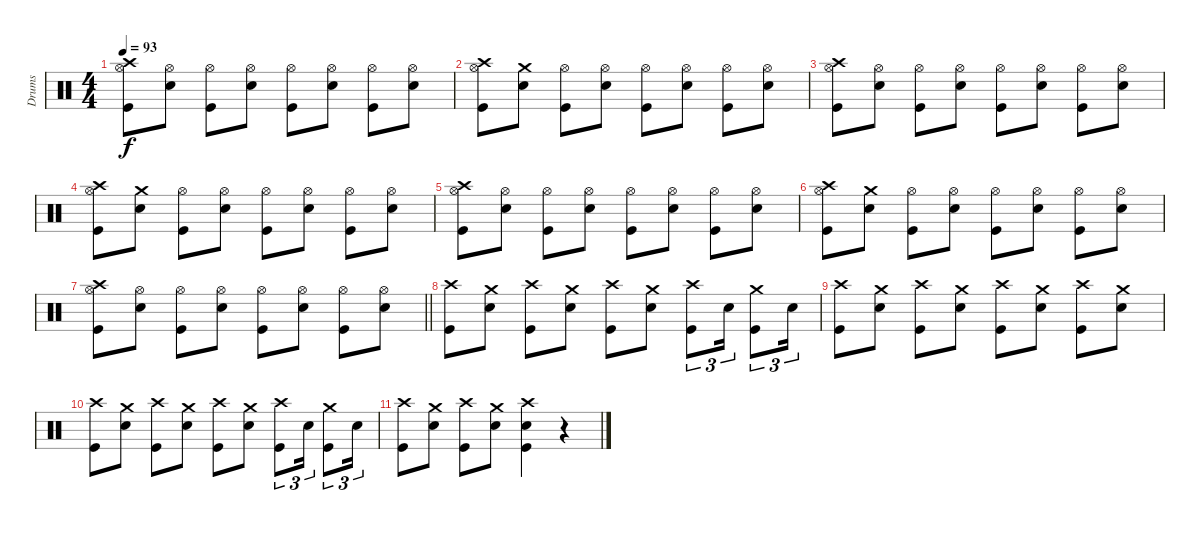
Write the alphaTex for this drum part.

\track ("Drums" "Drums") {instrument percussion}
\staff {score}
\articulation defaults
\ts (4 4)
\tempo 93
\clef neutral
\ks c
("Crash high (hit)" "Hi-Hat (open)" "Kick (hit)").8{dy f} ("Hi-Hat (open)" "Snare (hit) 2").8 ("Hi-Hat (open)" "Kick (hit)").8 ("Hi-Hat (open)" "Snare (hit) 2").8 ("Hi-Hat (open)" "Kick (hit)").8 ("Hi-Hat (open)" "Snare (hit) 2").8 ("Hi-Hat (open)" "Kick (hit)").8 ("Hi-Hat (open)" "Snare (hit) 2").8 |
("Crash high (hit)" "Hi-Hat (open)" "Kick (hit)").8 ("Crash medium (hit)" "Snare (hit) 2").8 ("Hi-Hat (open)" "Kick (hit)").8 ("Hi-Hat (open)" "Snare (hit) 2").8 ("Hi-Hat (open)" "Kick (hit)").8 ("Hi-Hat (open)" "Snare (hit) 2").8 ("Hi-Hat (open)" "Kick (hit)").8 ("Hi-Hat (open)" "Snare (hit) 2").8 |
("Crash high (hit)" "Hi-Hat (open)" "Kick (hit)").8 ("Hi-Hat (open)" "Snare (hit) 2").8 ("Hi-Hat (open)" "Kick (hit)").8 ("Hi-Hat (open)" "Snare (hit) 2").8 ("Hi-Hat (open)" "Kick (hit)").8 ("Hi-Hat (open)" "Snare (hit) 2").8 ("Hi-Hat (open)" "Kick (hit)").8 ("Hi-Hat (open)" "Snare (hit) 2").8 |
("Crash high (hit)" "Hi-Hat (open)" "Kick (hit)").8 ("Crash medium (hit)" "Snare (hit) 2").8 ("Hi-Hat (open)" "Kick (hit)").8 ("Hi-Hat (open)" "Snare (hit) 2").8 ("Hi-Hat (open)" "Kick (hit)").8 ("Hi-Hat (open)" "Snare (hit) 2").8 ("Hi-Hat (open)" "Kick (hit)").8 ("Hi-Hat (open)" "Snare (hit) 2").8 |
("Crash high (hit)" "Hi-Hat (open)" "Kick (hit)").8 ("Hi-Hat (open)" "Snare (hit) 2").8 ("Hi-Hat (open)" "Kick (hit)").8 ("Hi-Hat (open)" "Snare (hit) 2").8 ("Hi-Hat (open)" "Kick (hit)").8 ("Hi-Hat (open)" "Snare (hit) 2").8 ("Hi-Hat (open)" "Kick (hit)").8 ("Hi-Hat (open)" "Snare (hit) 2").8 |
("Crash high (hit)" "Hi-Hat (open)" "Kick (hit)").8 ("Crash medium (hit)" "Snare (hit) 2").8 ("Hi-Hat (open)" "Kick (hit)").8 ("Hi-Hat (open)" "Snare (hit) 2").8 ("Hi-Hat (open)" "Kick (hit)").8 ("Hi-Hat (open)" "Snare (hit) 2").8 ("Hi-Hat (open)" "Kick (hit)").8 ("Hi-Hat (open)" "Snare (hit) 2").8 |
\barLineRight lightlight
("Crash high (hit)" "Hi-Hat (open)" "Kick (hit)").8 ("Hi-Hat (open)" "Snare (hit) 2").8 ("Hi-Hat (open)" "Kick (hit)").8 ("Hi-Hat (open)" "Snare (hit) 2").8 ("Hi-Hat (open)" "Kick (hit)").8 ("Hi-Hat (open)" "Snare (hit) 2").8 ("Hi-Hat (open)" "Kick (hit)").8 ("Hi-Hat (open)" "Snare (hit) 2").8 |
("Crash high (hit)" "Kick (hit)").8 ("Crash medium (hit)" "Snare (hit) 2").8 ("Crash high (hit)" "Kick (hit)").8 ("Crash medium (hit)" "Snare (hit) 2").8 ("Crash high (hit)" "Kick (hit)").8 ("Crash medium (hit)" "Snare (hit) 2").8 ("Crash high (hit)" "Kick (hit)").8{tu (3 2)} "Snare (hit) 2".16{tu (3 2)} ("Crash medium (hit)" "Kick (hit)").8{tu (3 2)} "Snare (hit) 2".16{tu (3 2)} |
("Crash high (hit)" "Kick (hit)").8 ("Crash medium (hit)" "Snare (hit) 2").8 ("Crash high (hit)" "Kick (hit)").8 ("Crash medium (hit)" "Snare (hit) 2").8 ("Crash high (hit)" "Kick (hit)").8 ("Crash medium (hit)" "Snare (hit) 2").8 ("Crash high (hit)" "Kick (hit)").8 ("Crash medium (hit)" "Snare (hit) 2").8 |
("Crash high (hit)" "Kick (hit)").8 ("Crash medium (hit)" "Snare (hit) 2").8 ("Crash high (hit)" "Kick (hit)").8 ("Crash medium (hit)" "Snare (hit) 2").8 ("Crash high (hit)" "Kick (hit)").8 ("Crash medium (hit)" "Snare (hit) 2").8 ("Crash high (hit)" "Kick (hit)").8{tu (3 2)} "Snare (hit) 2".16{tu (3 2)} ("Crash medium (hit)" "Kick (hit)").8{tu (3 2)} "Snare (hit) 2".16{tu (3 2)} |
("Crash high (hit)" "Kick (hit)").8 ("Crash medium (hit)" "Snare (hit) 2").8 ("Crash high (hit)" "Kick (hit)").8 ("Crash medium (hit)" "Snare (hit) 2").8 ("Crash high (hit)" "Snare (hit) 2" "Kick (hit)").4 r.4
